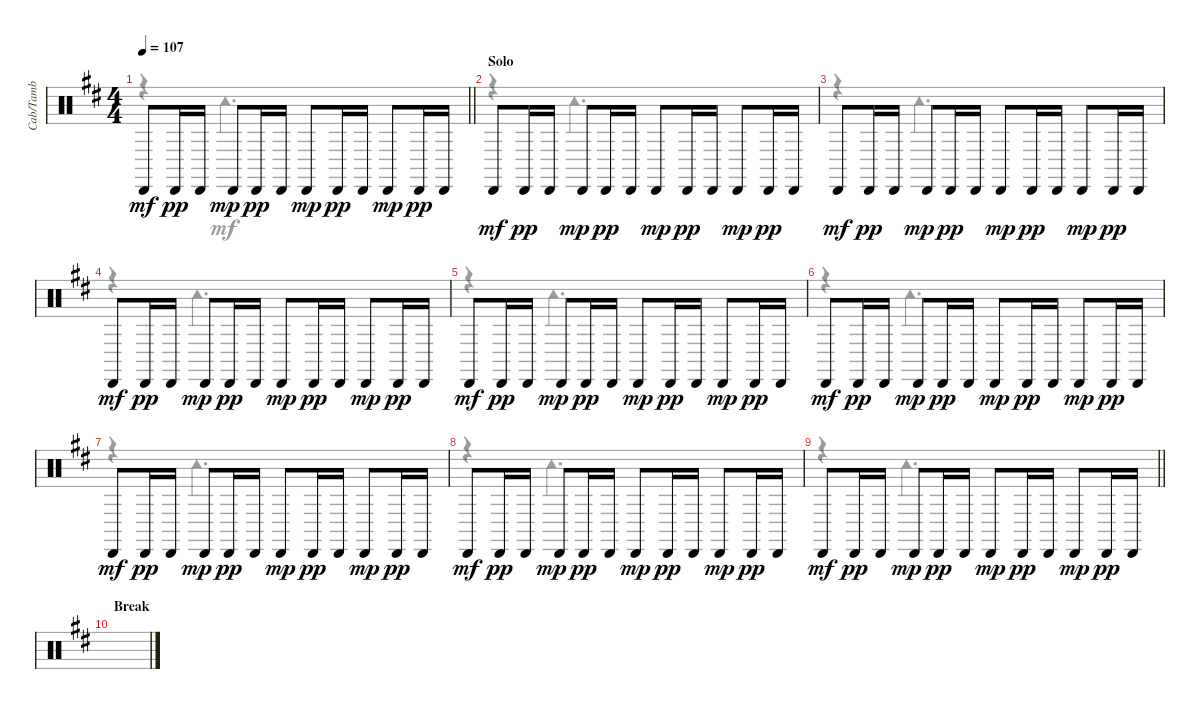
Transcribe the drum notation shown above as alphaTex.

\track ("Cab/Tamb" "Cab/Tamb") {instrument percussion}
\staff {score}
\articulation defaults
\voice
\ts (4 4)
\tempo 107
\clef neutral
\barLineRight lightlight
\ks d "Cabasa (hit)".8{dy mf} "Cabasa (hit)".16{dy pp} "Cabasa (hit)".16 "Cabasa (hit)".8{dy mp} "Cabasa (hit)".16{dy pp} "Cabasa (hit)".16 "Cabasa (hit)".8{dy mp} "Cabasa (hit)".16{dy pp} "Cabasa (hit)".16 "Cabasa (hit)".8{dy mp} "Cabasa (hit)".16{dy pp} "Cabasa (hit)".16
|
\section ("" "Solo")
"Cabasa (hit)".8{dy mf} "Cabasa (hit)".16{dy pp} "Cabasa (hit)".16 "Cabasa (hit)".8{dy mp} "Cabasa (hit)".16{dy pp} "Cabasa (hit)".16 "Cabasa (hit)".8{dy mp} "Cabasa (hit)".16{dy pp} "Cabasa (hit)".16 "Cabasa (hit)".8{dy mp} "Cabasa (hit)".16{dy pp} "Cabasa (hit)".16 |
"Cabasa (hit)".8{dy mf} "Cabasa (hit)".16{dy pp} "Cabasa (hit)".16 "Cabasa (hit)".8{dy mp} "Cabasa (hit)".16{dy pp} "Cabasa (hit)".16 "Cabasa (hit)".8{dy mp} "Cabasa (hit)".16{dy pp} "Cabasa (hit)".16 "Cabasa (hit)".8{dy mp} "Cabasa (hit)".16{dy pp} "Cabasa (hit)".16 |
"Cabasa (hit)".8{dy mf} "Cabasa (hit)".16{dy pp} "Cabasa (hit)".16 "Cabasa (hit)".8{dy mp} "Cabasa (hit)".16{dy pp} "Cabasa (hit)".16 "Cabasa (hit)".8{dy mp} "Cabasa (hit)".16{dy pp} "Cabasa (hit)".16 "Cabasa (hit)".8{dy mp} "Cabasa (hit)".16{dy pp} "Cabasa (hit)".16 |
"Cabasa (hit)".8{dy mf} "Cabasa (hit)".16{dy pp} "Cabasa (hit)".16 "Cabasa (hit)".8{dy mp} "Cabasa (hit)".16{dy pp} "Cabasa (hit)".16 "Cabasa (hit)".8{dy mp} "Cabasa (hit)".16{dy pp} "Cabasa (hit)".16 "Cabasa (hit)".8{dy mp} "Cabasa (hit)".16{dy pp} "Cabasa (hit)".16 |
"Cabasa (hit)".8{dy mf} "Cabasa (hit)".16{dy pp} "Cabasa (hit)".16 "Cabasa (hit)".8{dy mp} "Cabasa (hit)".16{dy pp} "Cabasa (hit)".16 "Cabasa (hit)".8{dy mp} "Cabasa (hit)".16{dy pp} "Cabasa (hit)".16 "Cabasa (hit)".8{dy mp} "Cabasa (hit)".16{dy pp} "Cabasa (hit)".16 |
"Cabasa (hit)".8{dy mf} "Cabasa (hit)".16{dy pp} "Cabasa (hit)".16 "Cabasa (hit)".8{dy mp} "Cabasa (hit)".16{dy pp} "Cabasa (hit)".16 "Cabasa (hit)".8{dy mp} "Cabasa (hit)".16{dy pp} "Cabasa (hit)".16 "Cabasa (hit)".8{dy mp} "Cabasa (hit)".16{dy pp} "Cabasa (hit)".16 |
"Cabasa (hit)".8{dy mf} "Cabasa (hit)".16{dy pp} "Cabasa (hit)".16 "Cabasa (hit)".8{dy mp} "Cabasa (hit)".16{dy pp} "Cabasa (hit)".16 "Cabasa (hit)".8{dy mp} "Cabasa (hit)".16{dy pp} "Cabasa (hit)".16 "Cabasa (hit)".8{dy mp} "Cabasa (hit)".16{dy pp} "Cabasa (hit)".16 |
\barLineRight lightlight "Cabasa (hit)".8{dy mf} "Cabasa (hit)".16{dy pp} "Cabasa (hit)".16 "Cabasa (hit)".8{dy mp} "Cabasa (hit)".16{dy pp} "Cabasa (hit)".16 "Cabasa (hit)".8{dy mp} "Cabasa (hit)".16{dy pp} "Cabasa (hit)".16 "Cabasa (hit)".8{dy mp} "Cabasa (hit)".16{dy pp} "Cabasa (hit)".16
|
\section ("" "Break")
|
|
|
|
|
|
\voice
\clef neutral
\ottava regular
\simile none
\barLineRight lightlight
\ks d
r.4{dy mf} "Tambourine (hit)".2{d} |
r.4 "Tambourine (hit)".2{d} |
r.4 "Tambourine (hit)".2{d} |
r.4 "Tambourine (hit)".2{d} |
r.4 "Tambourine (hit)".2{d} |
r.4 "Tambourine (hit)".2{d} |
r.4 "Tambourine (hit)".2{d} |
r.4 "Tambourine (hit)".2{d} |
\barLineRight lightlight
r.4 "Tambourine (hit)".2{d} |
|
|
|
|
|
|
